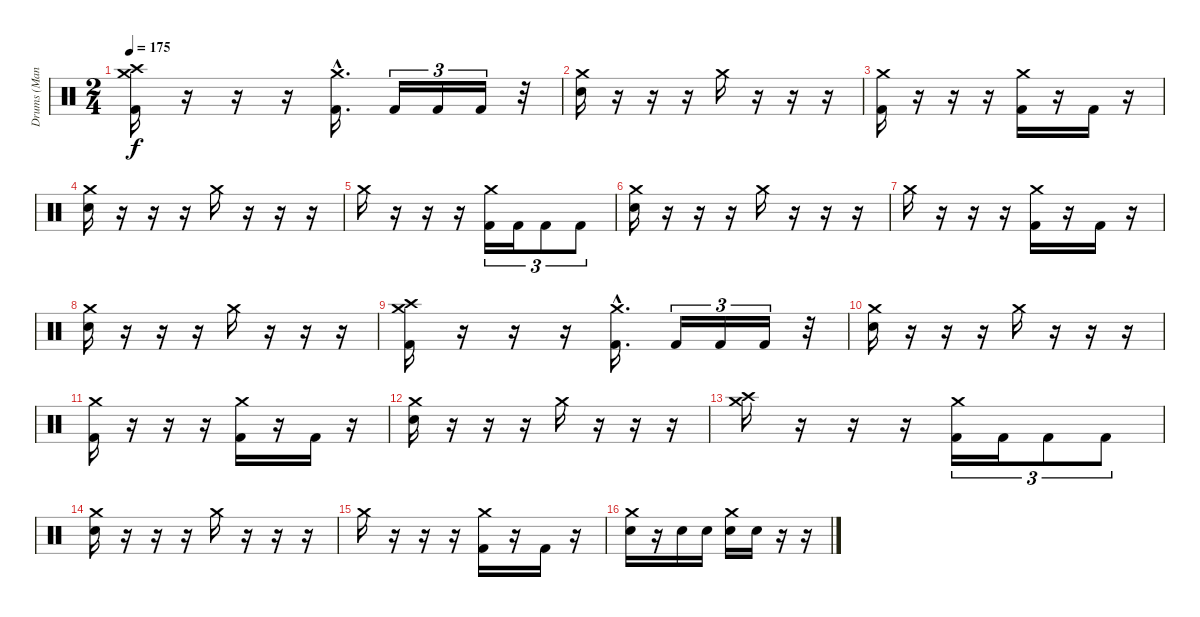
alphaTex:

\track ("Drums (Mancino)" "Drums (Man") {instrument percussion}
\staff {score}
\articulation defaults
\ts (2 4)
\tempo 175
\clef neutral
\ks c
("Crash medium (hit)" "Crash high (hit)" "Kick (hit) 2").16{dy f} r.16 r.16 r.16 ("Crash medium (hit)"{hac} "Kick (hit) 2"{hac}).16{d} "Kick (hit) 2".16{tu (3 2)} "Kick (hit) 2".16{tu (3 2)} "Kick (hit) 2".16{tu (3 2)} r.32 |
("Crash medium (hit)" "Electric Snare (hit)").16 r.16 r.16 r.16 "Crash medium (hit)".16 r.16 r.16 r.16 |
("Crash medium (hit)" "Kick (hit) 2").16 r.16 r.16 r.16 ("Crash medium (hit)" "Kick (hit) 2").16 r.16 "Kick (hit) 2".16 r.16 |
("Crash medium (hit)" "Electric Snare (hit)").16 r.16 r.16 r.16 "Crash medium (hit)".16 r.16 r.16 r.16 |
"Crash medium (hit)".16 r.16 r.16 r.16 ("Crash medium (hit)" "Kick (hit) 2").16{tu (3 2)} "Kick (hit) 2".16{tu (3 2)} "Kick (hit) 2".8{tu (3 2)} "Kick (hit) 2".8{tu (3 2)} |
("Crash medium (hit)" "Electric Snare (hit)").16 r.16 r.16 r.16 "Crash medium (hit)".16 r.16 r.16 r.16 |
"Crash medium (hit)".16 r.16 r.16 r.16 ("Crash medium (hit)" "Kick (hit) 2").16 r.16 "Kick (hit) 2".16 r.16 |
("Crash medium (hit)" "Electric Snare (hit)").16 r.16 r.16 r.16 "Crash medium (hit)".16 r.16 r.16 r.16 |
("Crash medium (hit)" "Crash high (hit)" "Kick (hit) 2").16 r.16 r.16 r.16 ("Crash medium (hit)"{hac} "Kick (hit) 2"{hac}).16{d} "Kick (hit) 2".16{tu (3 2)} "Kick (hit) 2".16{tu (3 2)} "Kick (hit) 2".16{tu (3 2)} r.32 |
("Crash medium (hit)" "Electric Snare (hit)").16 r.16 r.16 r.16 "Crash medium (hit)".16 r.16 r.16 r.16 |
("Crash medium (hit)" "Kick (hit) 2").16 r.16 r.16 r.16 ("Crash medium (hit)" "Kick (hit) 2").16 r.16 "Kick (hit) 2".16 r.16 |
("Crash medium (hit)" "Electric Snare (hit)").16 r.16 r.16 r.16 "Crash medium (hit)".16 r.16 r.16 r.16 |
("Crash medium (hit)" "Crash high (hit)").16 r.16 r.16 r.16 ("Crash medium (hit)" "Kick (hit) 2").16{tu (3 2)} "Kick (hit) 2".16{tu (3 2)} "Kick (hit) 2".8{tu (3 2)} "Kick (hit) 2".8{tu (3 2)} |
("Crash medium (hit)" "Electric Snare (hit)").16 r.16 r.16 r.16 "Crash medium (hit)".16 r.16 r.16 r.16 |
"Crash medium (hit)".16 r.16 r.16 r.16 ("Crash medium (hit)" "Kick (hit) 2").16 r.16 "Kick (hit) 2".16 r.16 |
("Crash medium (hit)" "Electric Snare (hit)").16 r.16 "Electric Snare (hit)".16 "Electric Snare (hit)".16 ("Crash medium (hit)" "Electric Snare (hit)").16 "Electric Snare (hit)".16 r.16 r.16
